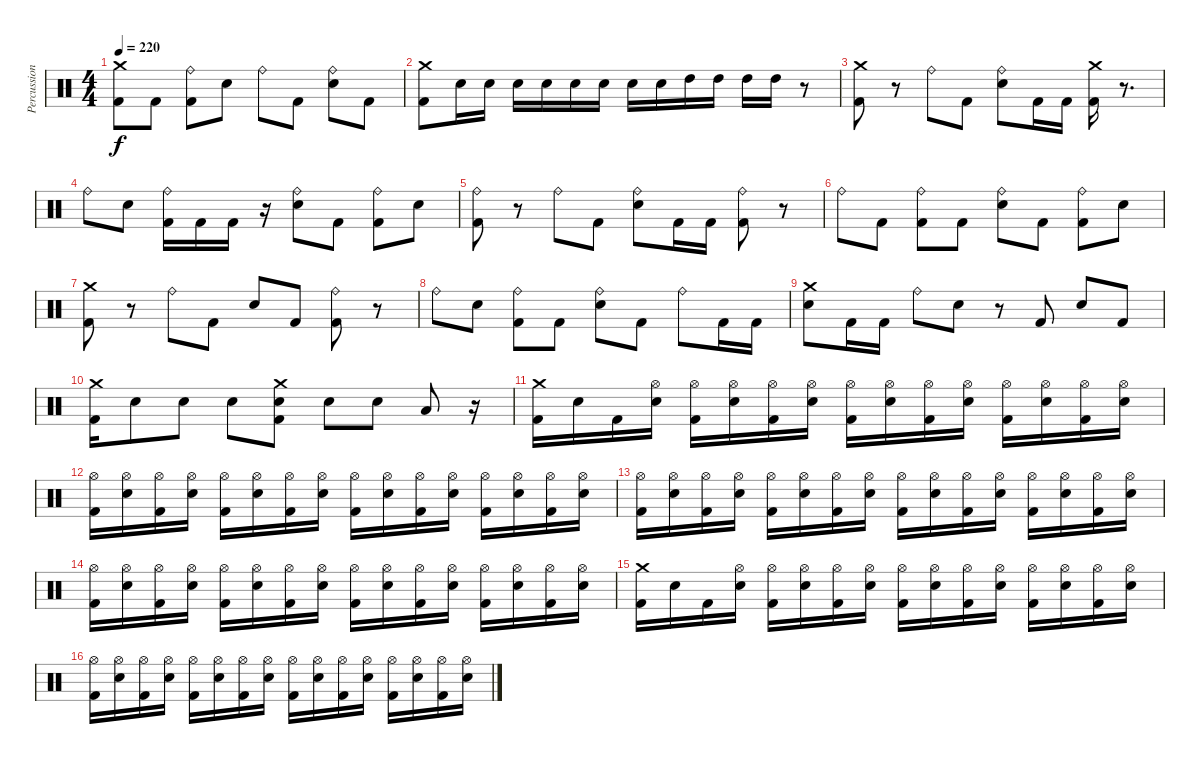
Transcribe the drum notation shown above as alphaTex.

\track ("Percussion (Dan Wilding)" "Percussion") {instrument percussion}
\staff {score}
\articulation defaults
\ts (4 4)
\tempo 220
\clef neutral
\ks c
("Crash medium (hit)" "Kick (hit) 2").8{dy f} "Kick (hit) 2".8 ("Ride (bell)" "Kick (hit) 2").8 "Electric Snare (hit)".8 "Ride (bell)".8 "Kick (hit) 2".8 ("Ride (bell)" "Electric Snare (hit)").8 "Kick (hit) 2".8 |
("Crash medium (hit)" "Kick (hit) 2").8 "Electric Snare (hit)".16 "Electric Snare (hit)".16 "Electric Snare (hit)".16 "Electric Snare (hit)".16 "Electric Snare (hit)".16 "Electric Snare (hit)".16 "Electric Snare (hit)".16 "Electric Snare (hit)".16 "High Tom (hit)".16 "High Tom (hit)".16 "High Tom (hit)".16 "High Tom (hit)".16 r.8 |
("Crash medium (hit)" "Kick (hit) 2").8 r.8 "Ride (bell)".8 "Kick (hit) 2".8 ("Ride (bell)" "Electric Snare (hit)").8 "Kick (hit) 2".16 "Kick (hit) 2".16 ("Crash medium (hit)" "Kick (hit) 2").16 r.8{d} |
"Ride (bell)".8 "Electric Snare (hit)".8 ("Ride (bell)" "Kick (hit) 2").16 "Kick (hit) 2".16 "Kick (hit) 2".16 r.16 ("Ride (bell)" "Electric Snare (hit)").8 "Kick (hit) 2".8 ("Ride (bell)" "Kick (hit) 2").8 "Electric Snare (hit)".8 |
("Ride (bell)" "Kick (hit) 2").8 r.8 "Ride (bell)".8 "Kick (hit) 2".8 ("Ride (bell)" "Electric Snare (hit)").8 "Kick (hit) 2".16 "Kick (hit) 2".16 ("Ride (bell)" "Kick (hit) 2").8 r.8 |
"Ride (bell)".8 "Kick (hit) 2".8 ("Ride (bell)" "Kick (hit) 2").8 "Kick (hit) 2".8 ("Ride (bell)" "Electric Snare (hit)").8 "Kick (hit) 2".8 ("Ride (bell)" "Kick (hit) 2").8 "Electric Snare (hit)".8 |
("Crash medium (hit)" "Kick (hit) 2").8 r.8 "Ride (bell)".8 "Kick (hit) 2".8 "Electric Snare (hit)".8 "Kick (hit) 2".8 ("Ride (bell)" "Kick (hit) 2").8 r.8 |
"Ride (bell)".8 "Electric Snare (hit)".8 ("Ride (bell)" "Kick (hit) 2").8 "Kick (hit) 2".8 ("Ride (bell)" "Electric Snare (hit)").8 "Kick (hit) 2".8 "Ride (bell)".8 "Kick (hit) 2".16 "Kick (hit) 2".16 |
("Crash medium (hit)" "Electric Snare (hit)").8 "Kick (hit) 2".16 "Kick (hit) 2".16 "Ride (bell)".8 "Electric Snare (hit)".8 r.8 "Kick (hit) 2".8 "Electric Snare (hit)".8 "Kick (hit) 2".8 |
("Crash medium (hit)" "Kick (hit) 2").16 "Electric Snare (hit)".8 "Electric Snare (hit)".8 "Electric Snare (hit)".8 ("Crash medium (hit)" "Electric Snare (hit)" "Kick (hit) 2").8 "Electric Snare (hit)".8 "Electric Snare (hit)".8 "Low Tom (hit)".8 r.16 |
("Crash medium (hit)" "Kick (hit) 2").16 "Electric Snare (hit)".16 "Kick (hit) 2".16 ("Hi-Hat (open)" "Electric Snare (hit)").16 ("Hi-Hat (open)" "Kick (hit) 2").16 ("Hi-Hat (open)" "Electric Snare (hit)").16 ("Hi-Hat (open)" "Kick (hit) 2").16 ("Hi-Hat (open)" "Electric Snare (hit)").16 ("Hi-Hat (open)" "Kick (hit) 2").16 ("Hi-Hat (open)" "Electric Snare (hit)").16 ("Hi-Hat (open)" "Kick (hit) 2").16 ("Hi-Hat (open)" "Electric Snare (hit)").16 ("Hi-Hat (open)" "Kick (hit) 2").16 ("Hi-Hat (open)" "Electric Snare (hit)").16 ("Hi-Hat (open)" "Kick (hit) 2").16 ("Hi-Hat (open)" "Electric Snare (hit)").16 |
("Hi-Hat (open)" "Kick (hit) 2").16 ("Hi-Hat (open)" "Electric Snare (hit)").16 ("Hi-Hat (open)" "Kick (hit) 2").16 ("Hi-Hat (open)" "Electric Snare (hit)").16 ("Hi-Hat (open)" "Kick (hit) 2").16 ("Hi-Hat (open)" "Electric Snare (hit)").16 ("Hi-Hat (open)" "Kick (hit) 2").16 ("Hi-Hat (open)" "Electric Snare (hit)").16 ("Hi-Hat (open)" "Kick (hit) 2").16 ("Hi-Hat (open)" "Electric Snare (hit)").16 ("Hi-Hat (open)" "Kick (hit) 2").16 ("Hi-Hat (open)" "Electric Snare (hit)").16 ("Hi-Hat (open)" "Kick (hit) 2").16 ("Hi-Hat (open)" "Electric Snare (hit)").16 ("Hi-Hat (open)" "Kick (hit) 2").16 ("Hi-Hat (open)" "Electric Snare (hit)").16 |
("Hi-Hat (open)" "Kick (hit) 2").16 ("Hi-Hat (open)" "Electric Snare (hit)").16 ("Hi-Hat (open)" "Kick (hit) 2").16 ("Hi-Hat (open)" "Electric Snare (hit)").16 ("Hi-Hat (open)" "Kick (hit) 2").16 ("Hi-Hat (open)" "Electric Snare (hit)").16 ("Hi-Hat (open)" "Kick (hit) 2").16 ("Hi-Hat (open)" "Electric Snare (hit)").16 ("Hi-Hat (open)" "Kick (hit) 2").16 ("Hi-Hat (open)" "Electric Snare (hit)").16 ("Hi-Hat (open)" "Kick (hit) 2").16 ("Hi-Hat (open)" "Electric Snare (hit)").16 ("Hi-Hat (open)" "Kick (hit) 2").16 ("Hi-Hat (open)" "Electric Snare (hit)").16 ("Hi-Hat (open)" "Kick (hit) 2").16 ("Hi-Hat (open)" "Electric Snare (hit)").16 |
("Hi-Hat (open)" "Kick (hit) 2").16 ("Hi-Hat (open)" "Electric Snare (hit)").16 ("Hi-Hat (open)" "Kick (hit) 2").16 ("Hi-Hat (open)" "Electric Snare (hit)").16 ("Hi-Hat (open)" "Kick (hit) 2").16 ("Hi-Hat (open)" "Electric Snare (hit)").16 ("Hi-Hat (open)" "Kick (hit) 2").16 ("Hi-Hat (open)" "Electric Snare (hit)").16 ("Hi-Hat (open)" "Kick (hit) 2").16 ("Hi-Hat (open)" "Electric Snare (hit)").16 ("Hi-Hat (open)" "Kick (hit) 2").16 ("Hi-Hat (open)" "Electric Snare (hit)").16 ("Hi-Hat (open)" "Kick (hit) 2").16 ("Hi-Hat (open)" "Electric Snare (hit)").16 ("Hi-Hat (open)" "Kick (hit) 2").16 ("Hi-Hat (open)" "Electric Snare (hit)").16 |
("Crash medium (hit)" "Kick (hit) 2").16 "Electric Snare (hit)".16 "Kick (hit) 2".16 ("Hi-Hat (open)" "Electric Snare (hit)").16 ("Hi-Hat (open)" "Kick (hit) 2").16 ("Hi-Hat (open)" "Electric Snare (hit)").16 ("Hi-Hat (open)" "Kick (hit) 2").16 ("Hi-Hat (open)" "Electric Snare (hit)").16 ("Hi-Hat (open)" "Kick (hit) 2").16 ("Hi-Hat (open)" "Electric Snare (hit)").16 ("Hi-Hat (open)" "Kick (hit) 2").16 ("Hi-Hat (open)" "Electric Snare (hit)").16 ("Hi-Hat (open)" "Kick (hit) 2").16 ("Hi-Hat (open)" "Electric Snare (hit)").16 ("Hi-Hat (open)" "Kick (hit) 2").16 ("Hi-Hat (open)" "Electric Snare (hit)").16 |
("Hi-Hat (open)" "Kick (hit) 2").16 ("Hi-Hat (open)" "Electric Snare (hit)").16 ("Hi-Hat (open)" "Kick (hit) 2").16 ("Hi-Hat (open)" "Electric Snare (hit)").16 ("Hi-Hat (open)" "Kick (hit) 2").16 ("Hi-Hat (open)" "Electric Snare (hit)").16 ("Hi-Hat (open)" "Kick (hit) 2").16 ("Hi-Hat (open)" "Electric Snare (hit)").16 ("Hi-Hat (open)" "Kick (hit) 2").16 ("Hi-Hat (open)" "Electric Snare (hit)").16 ("Hi-Hat (open)" "Kick (hit) 2").16 ("Hi-Hat (open)" "Electric Snare (hit)").16 ("Hi-Hat (open)" "Kick (hit) 2").16 ("Hi-Hat (open)" "Electric Snare (hit)").16 ("Hi-Hat (open)" "Kick (hit) 2").16 ("Hi-Hat (open)" "Electric Snare (hit)").16
